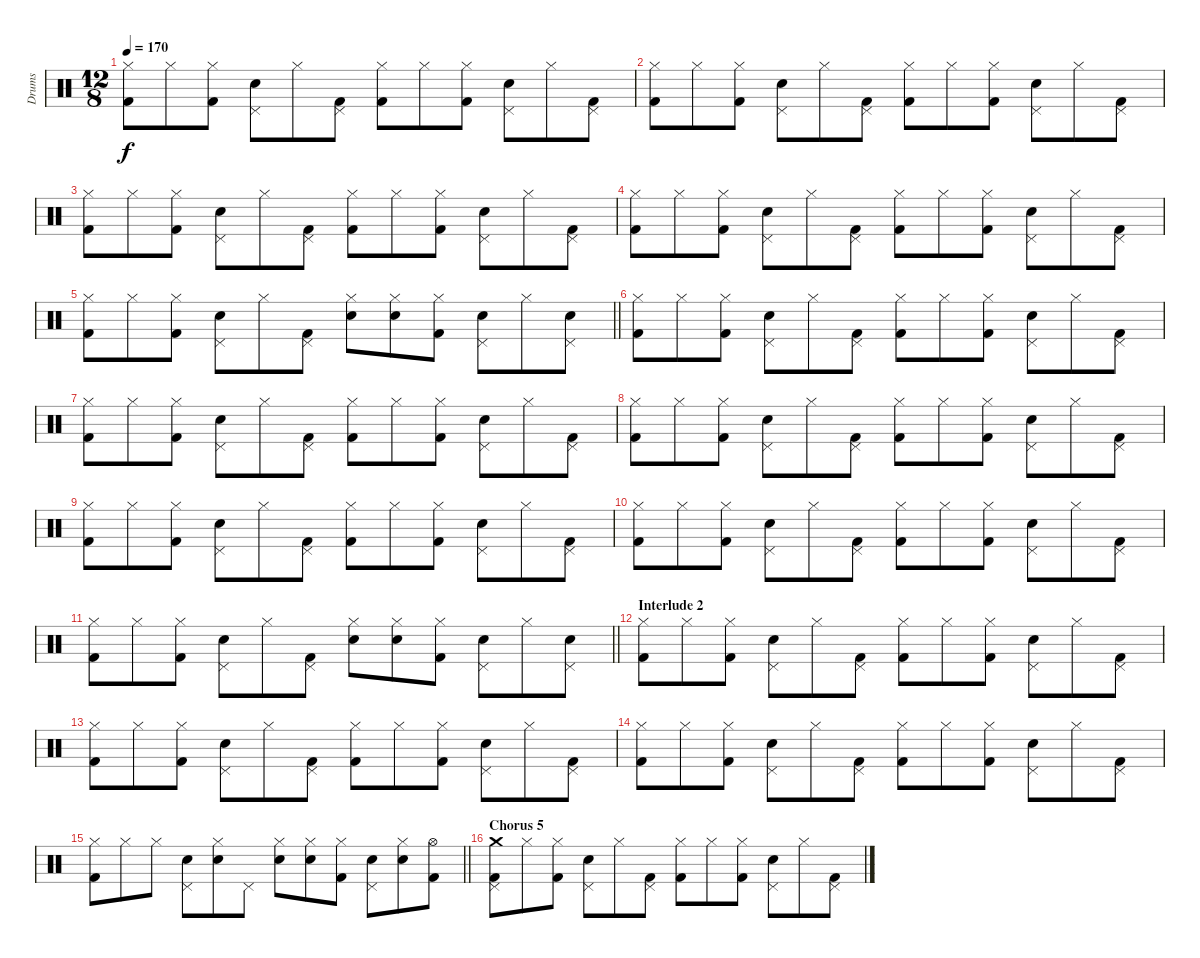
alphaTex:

\track ("Drums" "Drums") {instrument percussion}
\staff {score}
\articulation defaults
\ts (12 8)
\tempo 170
\clef neutral
\ks c
("Kick (hit) 2" "Hi-Hat (closed)").8{dy f} "Hi-Hat (closed)".8 ("Kick (hit) 2" "Hi-Hat (closed)").8 ("Snare (hit) 2" "Pedal Hi-Hat (hit)").8 "Hi-Hat (closed)".8 ("Kick (hit) 2" "Pedal Hi-Hat (hit)").8 ("Kick (hit) 2" "Hi-Hat (closed)").8 "Hi-Hat (closed)".8 ("Kick (hit) 2" "Hi-Hat (closed)").8 ("Snare (hit) 2" "Pedal Hi-Hat (hit)").8 "Hi-Hat (closed)".8 ("Kick (hit) 2" "Pedal Hi-Hat (hit)").8 |
("Kick (hit) 2" "Hi-Hat (closed)").8 "Hi-Hat (closed)".8 ("Kick (hit) 2" "Hi-Hat (closed)").8 ("Snare (hit) 2" "Pedal Hi-Hat (hit)").8 "Hi-Hat (closed)".8 ("Kick (hit) 2" "Pedal Hi-Hat (hit)").8 ("Kick (hit) 2" "Hi-Hat (closed)").8 "Hi-Hat (closed)".8 ("Kick (hit) 2" "Hi-Hat (closed)").8 ("Snare (hit) 2" "Pedal Hi-Hat (hit)").8 "Hi-Hat (closed)".8 ("Kick (hit) 2" "Pedal Hi-Hat (hit)").8 |
("Kick (hit) 2" "Hi-Hat (closed)").8 "Hi-Hat (closed)".8 ("Kick (hit) 2" "Hi-Hat (closed)").8 ("Snare (hit) 2" "Pedal Hi-Hat (hit)").8 "Hi-Hat (closed)".8 ("Kick (hit) 2" "Pedal Hi-Hat (hit)").8 ("Kick (hit) 2" "Hi-Hat (closed)").8 "Hi-Hat (closed)".8 ("Kick (hit) 2" "Hi-Hat (closed)").8 ("Snare (hit) 2" "Pedal Hi-Hat (hit)").8 "Hi-Hat (closed)".8 ("Kick (hit) 2" "Pedal Hi-Hat (hit)").8 |
("Kick (hit) 2" "Hi-Hat (closed)").8 "Hi-Hat (closed)".8 ("Kick (hit) 2" "Hi-Hat (closed)").8 ("Snare (hit) 2" "Pedal Hi-Hat (hit)").8 "Hi-Hat (closed)".8 ("Kick (hit) 2" "Pedal Hi-Hat (hit)").8 ("Kick (hit) 2" "Hi-Hat (closed)").8 "Hi-Hat (closed)".8 ("Kick (hit) 2" "Hi-Hat (closed)").8 ("Snare (hit) 2" "Pedal Hi-Hat (hit)").8 "Hi-Hat (closed)".8 ("Kick (hit) 2" "Pedal Hi-Hat (hit)").8 |
\barLineRight lightlight
("Kick (hit) 2" "Hi-Hat (closed)").8 "Hi-Hat (closed)".8 ("Kick (hit) 2" "Hi-Hat (closed)").8 ("Snare (hit) 2" "Pedal Hi-Hat (hit)").8 "Hi-Hat (closed)".8 ("Kick (hit) 2" "Pedal Hi-Hat (hit)").8 ("Snare (hit) 2" "Hi-Hat (closed)").8 ("Snare (hit) 2" "Hi-Hat (closed)").8 ("Kick (hit) 2" "Hi-Hat (closed)").8 ("Snare (hit) 2" "Pedal Hi-Hat (hit)").8 "Hi-Hat (closed)".8 ("Snare (hit) 2" "Pedal Hi-Hat (hit)").8 |
("Kick (hit) 2" "Hi-Hat (closed)").8 "Hi-Hat (closed)".8 ("Kick (hit) 2" "Hi-Hat (closed)").8 ("Snare (hit) 2" "Pedal Hi-Hat (hit)").8 "Hi-Hat (closed)".8 ("Kick (hit) 2" "Pedal Hi-Hat (hit)").8 ("Kick (hit) 2" "Hi-Hat (closed)").8 "Hi-Hat (closed)".8 ("Kick (hit) 2" "Hi-Hat (closed)").8 ("Snare (hit) 2" "Pedal Hi-Hat (hit)").8 "Hi-Hat (closed)".8 ("Kick (hit) 2" "Pedal Hi-Hat (hit)").8 |
("Kick (hit) 2" "Hi-Hat (closed)").8 "Hi-Hat (closed)".8 ("Kick (hit) 2" "Hi-Hat (closed)").8 ("Snare (hit) 2" "Pedal Hi-Hat (hit)").8 "Hi-Hat (closed)".8 ("Kick (hit) 2" "Pedal Hi-Hat (hit)").8 ("Kick (hit) 2" "Hi-Hat (closed)").8 "Hi-Hat (closed)".8 ("Kick (hit) 2" "Hi-Hat (closed)").8 ("Snare (hit) 2" "Pedal Hi-Hat (hit)").8 "Hi-Hat (closed)".8 ("Kick (hit) 2" "Pedal Hi-Hat (hit)").8 |
("Kick (hit) 2" "Hi-Hat (closed)").8 "Hi-Hat (closed)".8 ("Kick (hit) 2" "Hi-Hat (closed)").8 ("Snare (hit) 2" "Pedal Hi-Hat (hit)").8 "Hi-Hat (closed)".8 ("Kick (hit) 2" "Pedal Hi-Hat (hit)").8 ("Kick (hit) 2" "Hi-Hat (closed)").8 "Hi-Hat (closed)".8 ("Kick (hit) 2" "Hi-Hat (closed)").8 ("Snare (hit) 2" "Pedal Hi-Hat (hit)").8 "Hi-Hat (closed)".8 ("Kick (hit) 2" "Pedal Hi-Hat (hit)").8 |
("Kick (hit) 2" "Hi-Hat (closed)").8 "Hi-Hat (closed)".8 ("Kick (hit) 2" "Hi-Hat (closed)").8 ("Snare (hit) 2" "Pedal Hi-Hat (hit)").8 "Hi-Hat (closed)".8 ("Kick (hit) 2" "Pedal Hi-Hat (hit)").8 ("Kick (hit) 2" "Hi-Hat (closed)").8 "Hi-Hat (closed)".8 ("Kick (hit) 2" "Hi-Hat (closed)").8 ("Snare (hit) 2" "Pedal Hi-Hat (hit)").8 "Hi-Hat (closed)".8 ("Kick (hit) 2" "Pedal Hi-Hat (hit)").8 |
("Kick (hit) 2" "Hi-Hat (closed)").8 "Hi-Hat (closed)".8 ("Kick (hit) 2" "Hi-Hat (closed)").8 ("Snare (hit) 2" "Pedal Hi-Hat (hit)").8 "Hi-Hat (closed)".8 ("Kick (hit) 2" "Pedal Hi-Hat (hit)").8 ("Kick (hit) 2" "Hi-Hat (closed)").8 "Hi-Hat (closed)".8 ("Kick (hit) 2" "Hi-Hat (closed)").8 ("Snare (hit) 2" "Pedal Hi-Hat (hit)").8 "Hi-Hat (closed)".8 ("Kick (hit) 2" "Pedal Hi-Hat (hit)").8 |
\barLineRight lightlight
("Kick (hit) 2" "Hi-Hat (closed)").8 "Hi-Hat (closed)".8 ("Kick (hit) 2" "Hi-Hat (closed)").8 ("Snare (hit) 2" "Pedal Hi-Hat (hit)").8 "Hi-Hat (closed)".8 ("Kick (hit) 2" "Pedal Hi-Hat (hit)").8 ("Snare (hit) 2" "Hi-Hat (closed)").8 ("Snare (hit) 2" "Hi-Hat (closed)").8 ("Kick (hit) 2" "Hi-Hat (closed)").8 ("Snare (hit) 2" "Pedal Hi-Hat (hit)").8 "Hi-Hat (closed)".8 ("Snare (hit) 2" "Pedal Hi-Hat (hit)").8 |
\section ("" "Interlude 2")
("Kick (hit) 2" "Hi-Hat (closed)").8 "Hi-Hat (closed)".8 ("Kick (hit) 2" "Hi-Hat (closed)").8 ("Snare (hit) 2" "Pedal Hi-Hat (hit)").8 "Hi-Hat (closed)".8 ("Kick (hit) 2" "Pedal Hi-Hat (hit)").8 ("Kick (hit) 2" "Hi-Hat (closed)").8 "Hi-Hat (closed)".8 ("Kick (hit) 2" "Hi-Hat (closed)").8 ("Snare (hit) 2" "Pedal Hi-Hat (hit)").8 "Hi-Hat (closed)".8 ("Kick (hit) 2" "Pedal Hi-Hat (hit)").8 |
("Kick (hit) 2" "Hi-Hat (closed)").8 "Hi-Hat (closed)".8 ("Kick (hit) 2" "Hi-Hat (closed)").8 ("Snare (hit) 2" "Pedal Hi-Hat (hit)").8 "Hi-Hat (closed)".8 ("Kick (hit) 2" "Pedal Hi-Hat (hit)").8 ("Kick (hit) 2" "Hi-Hat (closed)").8 "Hi-Hat (closed)".8 ("Kick (hit) 2" "Hi-Hat (closed)").8 ("Snare (hit) 2" "Pedal Hi-Hat (hit)").8 "Hi-Hat (closed)".8 ("Kick (hit) 2" "Pedal Hi-Hat (hit)").8 |
("Kick (hit) 2" "Hi-Hat (closed)").8 "Hi-Hat (closed)".8 ("Kick (hit) 2" "Hi-Hat (closed)").8 ("Snare (hit) 2" "Pedal Hi-Hat (hit)").8 "Hi-Hat (closed)".8 ("Kick (hit) 2" "Pedal Hi-Hat (hit)").8 ("Kick (hit) 2" "Hi-Hat (closed)").8 "Hi-Hat (closed)".8 ("Kick (hit) 2" "Hi-Hat (closed)").8 ("Snare (hit) 2" "Pedal Hi-Hat (hit)").8 "Hi-Hat (closed)".8 ("Kick (hit) 2" "Pedal Hi-Hat (hit)").8 |
\barLineRight lightlight
("Kick (hit) 2" "Hi-Hat (closed)").8 "Hi-Hat (closed)".8 "Hi-Hat (closed)".8 ("Snare (hit) 2" "Pedal Hi-Hat (hit)").8 ("Snare (hit) 2" "Hi-Hat (closed)").8 "Pedal Hi-Hat (hit)".8 ("Snare (hit) 2" "Hi-Hat (closed)").8 ("Snare (hit) 2" "Hi-Hat (closed)").8 ("Kick (hit) 2" "Hi-Hat (closed)").8 ("Snare (hit) 2" "Pedal Hi-Hat (hit)").8 ("Snare (hit) 2" "Hi-Hat (closed)").8 ("Kick (hit) 2" "Hi-Hat (open)").8 |
\section ("" "Chorus 5")
("Kick (hit) 2" "Crash medium (hit)" "Pedal Hi-Hat (hit)").8 "Hi-Hat (closed)".8 ("Kick (hit) 2" "Hi-Hat (closed)").8 ("Snare (hit) 2" "Pedal Hi-Hat (hit)").8 "Hi-Hat (closed)".8 ("Kick (hit) 2" "Pedal Hi-Hat (hit)").8 ("Kick (hit) 2" "Hi-Hat (closed)").8 "Hi-Hat (closed)".8 ("Kick (hit) 2" "Hi-Hat (closed)").8 ("Snare (hit) 2" "Pedal Hi-Hat (hit)").8 "Hi-Hat (closed)".8 ("Kick (hit) 2" "Pedal Hi-Hat (hit)").8
